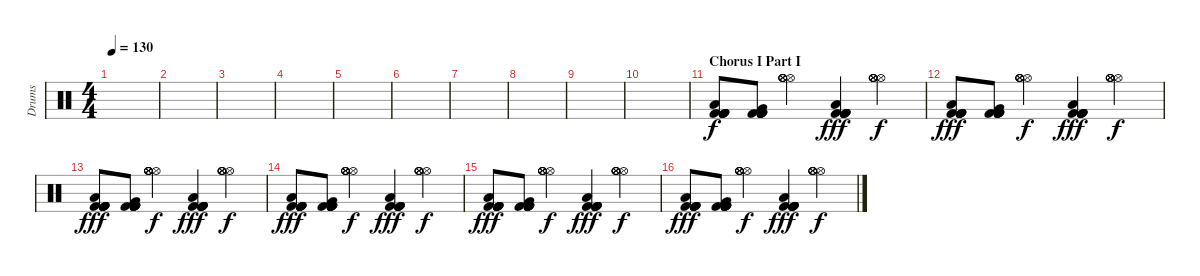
\track ("Drums" "Drums") {instrument percussion}
\staff {score}
\articulation defaults
\ts (4 4)
\tempo 130
\clef neutral
\ks c
|
|
|
|
|
|
|
|
|
|
\section ("" "Chorus I Part I")
("Kick (hit) 2" "Low Tom (hit)" "Kick (hit) 2" "Kick (hit) 2" "Kick (hit) 2" "Kick (hit) 2").8 ("Kick (hit) 2" "Very Low Tom (hit)" "Kick (hit) 2" "Kick (hit) 2" "Kick (hit) 2" "Kick (hit) 2").8 ("Hi-Hat (open)" "Hi-Hat (open)" "Hi-Hat (open)" "Hi-Hat (open)" "Hi-Hat (open)").4{dy f} ("Kick (hit) 2" "Low Floor Tom (hit)" "Kick (hit) 2" "Kick (hit) 2" "Kick (hit) 2" "Kick (hit) 2").4{dy fff} ("Hi-Hat (open)" "Hi-Hat (open)" "Hi-Hat (open)" "Hi-Hat (open)" "Hi-Hat (open)").4{dy f} |
("Kick (hit) 2" "Low Tom (hit)" "Kick (hit) 2" "Kick (hit) 2" "Kick (hit) 2" "Kick (hit) 2").8{dy fff} ("Kick (hit) 2" "Very Low Tom (hit)" "Kick (hit) 2" "Kick (hit) 2" "Kick (hit) 2" "Kick (hit) 2").8 ("Hi-Hat (open)" "Hi-Hat (open)" "Hi-Hat (open)" "Hi-Hat (open)" "Hi-Hat (open)").4{dy f} ("Kick (hit) 2" "Low Floor Tom (hit)" "Kick (hit) 2" "Kick (hit) 2" "Kick (hit) 2" "Kick (hit) 2").4{dy fff} ("Hi-Hat (open)" "Hi-Hat (open)" "Hi-Hat (open)" "Hi-Hat (open)" "Hi-Hat (open)").4{dy f} |
("Kick (hit) 2" "Low Tom (hit)" "Kick (hit) 2" "Kick (hit) 2" "Kick (hit) 2" "Kick (hit) 2").8{dy fff} ("Kick (hit) 2" "Very Low Tom (hit)" "Kick (hit) 2" "Kick (hit) 2" "Kick (hit) 2" "Kick (hit) 2").8 ("Hi-Hat (open)" "Hi-Hat (open)" "Hi-Hat (open)" "Hi-Hat (open)" "Hi-Hat (open)").4{dy f} ("Kick (hit) 2" "Low Floor Tom (hit)" "Kick (hit) 2" "Kick (hit) 2" "Kick (hit) 2" "Kick (hit) 2").4{dy fff} ("Hi-Hat (open)" "Hi-Hat (open)" "Hi-Hat (open)" "Hi-Hat (open)" "Hi-Hat (open)").4{dy f} |
("Kick (hit) 2" "Low Tom (hit)" "Kick (hit) 2" "Kick (hit) 2" "Kick (hit) 2" "Kick (hit) 2").8{dy fff} ("Kick (hit) 2" "Very Low Tom (hit)" "Kick (hit) 2" "Kick (hit) 2" "Kick (hit) 2" "Kick (hit) 2").8 ("Hi-Hat (open)" "Hi-Hat (open)" "Hi-Hat (open)" "Hi-Hat (open)" "Hi-Hat (open)").4{dy f} ("Kick (hit) 2" "Low Floor Tom (hit)" "Kick (hit) 2" "Kick (hit) 2" "Kick (hit) 2" "Kick (hit) 2").4{dy fff} ("Hi-Hat (open)" "Hi-Hat (open)" "Hi-Hat (open)" "Hi-Hat (open)" "Hi-Hat (open)").4{dy f} |
("Kick (hit) 2" "Low Tom (hit)" "Kick (hit) 2" "Kick (hit) 2" "Kick (hit) 2" "Kick (hit) 2").8{dy fff} ("Kick (hit) 2" "Very Low Tom (hit)" "Kick (hit) 2" "Kick (hit) 2" "Kick (hit) 2" "Kick (hit) 2").8 ("Hi-Hat (open)" "Hi-Hat (open)" "Hi-Hat (open)" "Hi-Hat (open)" "Hi-Hat (open)").4{dy f} ("Kick (hit) 2" "Low Floor Tom (hit)" "Kick (hit) 2" "Kick (hit) 2" "Kick (hit) 2" "Kick (hit) 2").4{dy fff} ("Hi-Hat (open)" "Hi-Hat (open)" "Hi-Hat (open)" "Hi-Hat (open)" "Hi-Hat (open)").4{dy f} |
("Kick (hit) 2" "Low Tom (hit)" "Kick (hit) 2" "Kick (hit) 2" "Kick (hit) 2" "Kick (hit) 2").8{dy fff} ("Kick (hit) 2" "Very Low Tom (hit)" "Kick (hit) 2" "Kick (hit) 2" "Kick (hit) 2" "Kick (hit) 2").8 ("Hi-Hat (open)" "Hi-Hat (open)" "Hi-Hat (open)" "Hi-Hat (open)" "Hi-Hat (open)").4{dy f} ("Kick (hit) 2" "Low Floor Tom (hit)" "Kick (hit) 2" "Kick (hit) 2" "Kick (hit) 2" "Kick (hit) 2").4{dy fff} ("Hi-Hat (open)" "Hi-Hat (open)" "Hi-Hat (open)" "Hi-Hat (open)" "Hi-Hat (open)").4{dy f}
